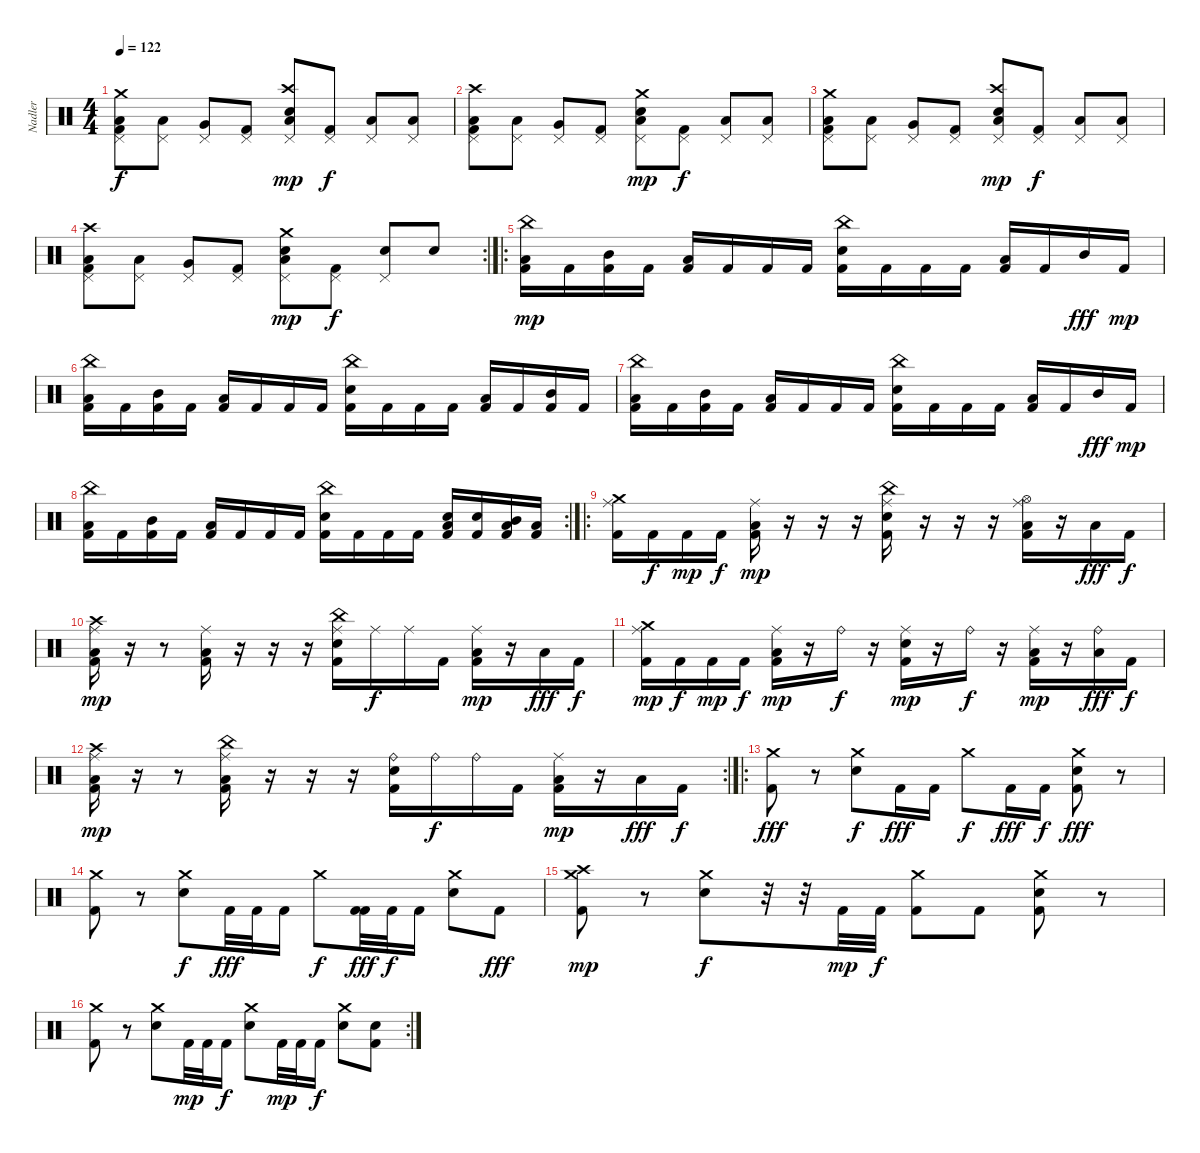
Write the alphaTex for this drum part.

\track ("Nadler" "Nadler") {mute instrument percussion}
\staff {score}
\articulation defaults
\ts (4 4)
\tempo 122
\clef neutral
\ks c
("Crash medium (hit)" "Pedal Hi-Hat (hit)" "Low Floor Tom (hit)" "Kick (hit) 2").8{dy f} ("Pedal Hi-Hat (hit)" "Low Tom (hit)").8 ("Pedal Hi-Hat (hit)" "Very Low Tom (hit)").8 ("Pedal Hi-Hat (hit)" "Kick (hit) 2").8 ("Crash high (hit)" "Pedal Hi-Hat (hit)" "Electric Snare (hit)" "Low Floor Tom (hit)").8{dy mp} ("Pedal Hi-Hat (hit)" "Kick (hit) 2").8{dy f} ("Pedal Hi-Hat (hit)" "Low Floor Tom (hit)").8 ("Pedal Hi-Hat (hit)" "Low Tom (hit)").8 |
("Crash high (hit)" "Pedal Hi-Hat (hit)" "Low Floor Tom (hit)" "Kick (hit) 2").8 ("Pedal Hi-Hat (hit)" "Low Tom (hit)").8 ("Pedal Hi-Hat (hit)" "Very Low Tom (hit)").8 ("Pedal Hi-Hat (hit)" "Kick (hit) 2").8 ("Crash medium (hit)" "Pedal Hi-Hat (hit)" "Electric Snare (hit)" "Low Floor Tom (hit)").8{dy mp} ("Pedal Hi-Hat (hit)" "Kick (hit) 2").8{dy f} ("Pedal Hi-Hat (hit)" "Low Floor Tom (hit)").8 ("Pedal Hi-Hat (hit)" "Low Tom (hit)").8 |
("Crash medium (hit)" "Pedal Hi-Hat (hit)" "Low Floor Tom (hit)" "Kick (hit) 2").8 ("Pedal Hi-Hat (hit)" "Low Tom (hit)").8 ("Pedal Hi-Hat (hit)" "Very Low Tom (hit)").8 ("Pedal Hi-Hat (hit)" "Kick (hit) 2").8 ("Crash high (hit)" "Pedal Hi-Hat (hit)" "Electric Snare (hit)" "Low Floor Tom (hit)").8{dy mp} ("Pedal Hi-Hat (hit)" "Kick (hit) 2").8{dy f} ("Pedal Hi-Hat (hit)" "Low Floor Tom (hit)").8 ("Pedal Hi-Hat (hit)" "Low Tom (hit)").8 |
\rc 2
("Crash high (hit)" "Pedal Hi-Hat (hit)" "Low Floor Tom (hit)" "Kick (hit) 2").8 ("Pedal Hi-Hat (hit)" "Low Tom (hit)").8 ("Pedal Hi-Hat (hit)" "Very Low Tom (hit)").8 ("Pedal Hi-Hat (hit)" "Kick (hit) 2").8 ("Crash medium (hit)" "Pedal Hi-Hat (hit)" "Electric Snare (hit)" "Low Floor Tom (hit)").8{dy mp} ("Pedal Hi-Hat (hit)" "Kick (hit) 2").8{dy f} ("Pedal Hi-Hat (hit)" "Electric Snare (hit)").8 "Electric Snare (hit)".8 |
\ro
("China (hit)" "Low Floor Tom (hit)" "Kick (hit) 2").16{dy mp} "Kick (hit) 2".16 ("Mid Tom (hit)" "Kick (hit) 2").16 "Kick (hit) 2".16 ("Low Floor Tom (hit)" "Kick (hit) 2").16 "Kick (hit) 2".16 "Kick (hit) 2".16 "Kick (hit) 2".16 ("China (hit)" "Electric Snare (hit)" "Kick (hit) 2").16 "Kick (hit) 2".16 "Kick (hit) 2".16 "Kick (hit) 2".16 ("Low Floor Tom (hit)" "Kick (hit) 2").16 "Kick (hit) 2".16 "Mid Tom (hit)".16{dy fff} "Kick (hit) 2".16{dy mp} |
("China (hit)" "Low Floor Tom (hit)" "Kick (hit) 2").16 "Kick (hit) 2".16 ("Mid Tom (hit)" "Kick (hit) 2").16 "Kick (hit) 2".16 ("Low Floor Tom (hit)" "Kick (hit) 2").16 "Kick (hit) 2".16 "Kick (hit) 2".16 "Kick (hit) 2".16 ("China (hit)" "Electric Snare (hit)" "Kick (hit) 2").16 "Kick (hit) 2".16 "Kick (hit) 2".16 "Kick (hit) 2".16 ("Low Floor Tom (hit)" "Kick (hit) 2").16 "Kick (hit) 2".16 ("Mid Tom (hit)" "Kick (hit) 2").16 "Kick (hit) 2".16 |
("China (hit)" "Low Floor Tom (hit)" "Kick (hit) 2").16 "Kick (hit) 2".16 ("Mid Tom (hit)" "Kick (hit) 2").16 "Kick (hit) 2".16 ("Low Floor Tom (hit)" "Kick (hit) 2").16 "Kick (hit) 2".16 "Kick (hit) 2".16 "Kick (hit) 2".16 ("China (hit)" "Electric Snare (hit)" "Kick (hit) 2").16 "Kick (hit) 2".16 "Kick (hit) 2".16 "Kick (hit) 2".16 ("Low Floor Tom (hit)" "Kick (hit) 2").16 "Kick (hit) 2".16 "Mid Tom (hit)".16{dy fff} "Kick (hit) 2".16{dy mp} |
\rc 2
("China (hit)" "Low Floor Tom (hit)" "Kick (hit) 2").16 "Kick (hit) 2".16 ("Mid Tom (hit)" "Kick (hit) 2").16 "Kick (hit) 2".16 ("Low Floor Tom (hit)" "Kick (hit) 2").16 "Kick (hit) 2".16 "Kick (hit) 2".16 "Kick (hit) 2".16 ("China (hit)" "Electric Snare (hit)" "Kick (hit) 2").16 "Kick (hit) 2".16 "Kick (hit) 2".16 "Kick (hit) 2".16 ("Electric Snare (hit)" "Low Floor Tom (hit)" "Kick (hit) 2").16 ("Electric Snare (hit)" "Kick (hit) 2").16 ("Low Tom (hit)" "Mid Tom (hit)" "Kick (hit) 2").16 ("Low Tom (hit)" "Kick (hit) 2").16 |
\ro
("Ride (middle)" "Crash medium (hit)" "Kick (hit) 2").16 "Kick (hit) 2".16{dy f} "Kick (hit) 2".16{dy mp} "Kick (hit) 2".16{dy f} ("Ride (middle)" "Low Floor Tom (hit)" "Kick (hit) 2").16{dy mp} r.16 r.16 r.16 ("Ride (middle)" "China (hit)" "Electric Snare (hit)" "Kick (hit) 2").16 r.16 r.16 r.16 ("Ride (middle)" "Hi-Hat (open)" "Low Floor Tom (hit)" "Kick (hit) 2").16 r.16 "Low Tom (hit)".16{dy fff} "Kick (hit) 2".16{dy f} |
("Ride (middle)" "Crash high (hit)" "Low Floor Tom (hit)" "Kick (hit) 2").16{dy mp} r.16 r.8 ("Ride (middle)" "Low Floor Tom (hit)" "Kick (hit) 2").16 r.16 r.16 r.16 ("Ride (middle)" "China (hit)" "Electric Snare (hit)" "Kick (hit) 2").16 "Ride (middle)".16{dy f} "Ride (middle)".16 "Kick (hit) 2".16 ("Ride (middle)" "Low Floor Tom (hit)" "Kick (hit) 2").16{dy mp} r.16 "Low Tom (hit)".16{dy fff} "Kick (hit) 2".16{dy f} |
("Ride (middle)" "Crash medium (hit)" "Kick (hit) 2").16{dy mp} "Kick (hit) 2".16{dy f} "Kick (hit) 2".16{dy mp} "Kick (hit) 2".16{dy f} ("Ride (middle)" "Low Floor Tom (hit)" "Kick (hit) 2").16{dy mp} r.16 "Ride (bell)".16{dy f} r.16 ("Ride (middle)" "Electric Snare (hit)" "Kick (hit) 2").16{dy mp} r.16 "Ride (bell)".16{dy f} r.16 ("Ride (middle)" "Low Floor Tom (hit)" "Kick (hit) 2").16{dy mp} r.16 ("Ride (bell)" "Low Tom (hit)").16{dy fff} "Kick (hit) 2".16{dy f} |
\rc 2
("Ride (middle)" "Crash high (hit)" "Low Floor Tom (hit)" "Kick (hit) 2").16{dy mp} r.16 r.8 ("Ride (middle)" "China (hit)" "Low Floor Tom (hit)" "Kick (hit) 2").16 r.16 r.16 r.16 ("Ride (bell)" "Electric Snare (hit)" "Kick (hit) 2").16 "Ride (bell)".16{dy f} "Ride (bell)".16 "Kick (hit) 2".16 ("Ride (middle)" "Low Floor Tom (hit)" "Kick (hit) 2").16{dy mp} r.16 "Low Tom (hit)".16{dy fff} "Kick (hit) 2".16{dy f} |
\ro
("Crash medium (hit)" "Kick (hit) 2").8{dy fff} r.8 ("Crash medium (hit)" "Electric Snare (hit)").8{dy f} "Kick (hit) 2".16{dy fff} "Kick (hit) 2".16 "Crash medium (hit)".8{dy f} "Kick (hit) 2".16{dy fff} "Kick (hit) 2".16{dy f} ("Crash medium (hit)" "Electric Snare (hit)" "Kick (hit) 2").8{dy fff} r.8 |
("Crash medium (hit)" "Kick (hit) 2").8 r.8 ("Crash medium (hit)" "Electric Snare (hit)").8{dy f} "Kick (hit) 2".32{dy fff} "Kick (hit) 2".32 "Kick (hit) 2".16 "Crash medium (hit)".8{dy f} ("Kick (hit) 2" "Kick (hit) 2").32{dy fff} "Kick (hit) 2".32{dy f} "Kick (hit) 2".16 ("Crash medium (hit)" "Electric Snare (hit)").8 "Kick (hit) 2".8{dy fff} |
("Crash high (hit)" "Crash medium (hit)" "Kick (hit) 2").8{dy mp} r.8 ("Crash medium (hit)" "Electric Snare (hit)").8{dy f} r.32 r.32 "Kick (hit) 2".32{dy mp} "Kick (hit) 2".32{dy f} ("Crash medium (hit)" "Kick (hit) 2").8 "Kick (hit) 2".8 ("Crash medium (hit)" "Electric Snare (hit)" "Kick (hit) 2").8 r.8 |
\rc 2
("Crash medium (hit)" "Kick (hit) 2").8 r.8 ("Crash medium (hit)" "Electric Snare (hit)").8 "Kick (hit) 2".32{dy mp} "Kick (hit) 2".32 "Kick (hit) 2".16{dy f} ("Crash medium (hit)" "Electric Snare (hit)").8 "Kick (hit) 2".32{dy mp} "Kick (hit) 2".32 "Kick (hit) 2".16{dy f} ("Crash medium (hit)" "Electric Snare (hit)").8 ("Electric Snare (hit)" "Kick (hit) 2").8
